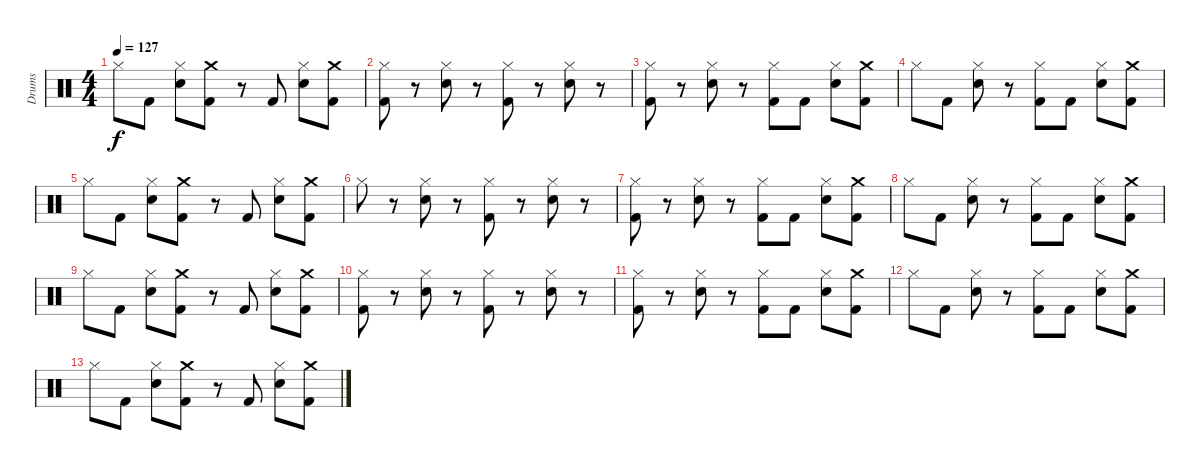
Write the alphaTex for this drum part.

\track ("Drums" "Drums") {instrument percussion}
\staff {score}
\articulation defaults
\ts (4 4)
\tempo 127
\clef neutral
\ks c "Hi-Hat (closed)".8{dy f} "Kick (hit) 2".8
("Hi-Hat (closed)" "Snare (hit) 2").8 ("Crash medium (hit)" "Kick (hit) 2").8 r.8 "Kick (hit) 2".8 ("Hi-Hat (closed)" "Snare (hit) 2").8 ("Crash medium (hit)" "Kick (hit) 2").8 |
("Hi-Hat (closed)" "Kick (hit) 2").8 r.8 ("Hi-Hat (closed)" "Snare (hit) 2").8 r.8 ("Hi-Hat (closed)" "Kick (hit) 2").8 r.8 ("Hi-Hat (closed)" "Snare (hit) 2").8 r.8 |
("Hi-Hat (closed)" "Kick (hit) 2").8 r.8 ("Hi-Hat (closed)" "Snare (hit) 2").8 r.8 ("Hi-Hat (closed)" "Kick (hit) 2").8 "Kick (hit) 2".8 ("Hi-Hat (closed)" "Snare (hit) 2").8 ("Crash medium (hit)" "Kick (hit) 2").8 |
"Hi-Hat (closed)".8 "Kick (hit) 2".8 ("Hi-Hat (closed)" "Snare (hit) 2").8 r.8 ("Hi-Hat (closed)" "Kick (hit) 2").8 "Kick (hit) 2".8 ("Hi-Hat (closed)" "Snare (hit) 2").8 ("Crash medium (hit)" "Kick (hit) 2").8 |
"Hi-Hat (closed)".8 "Kick (hit) 2".8 ("Hi-Hat (closed)" "Snare (hit) 2").8 ("Crash medium (hit)" "Kick (hit) 2").8 r.8 "Kick (hit) 2".8 ("Hi-Hat (closed)" "Snare (hit) 2").8 ("Crash medium (hit)" "Kick (hit) 2").8 |
"Hi-Hat (closed)".8 r.8 ("Hi-Hat (closed)" "Snare (hit) 2").8 r.8 ("Hi-Hat (closed)" "Kick (hit) 2").8 r.8 ("Hi-Hat (closed)" "Snare (hit) 2").8 r.8 |
("Hi-Hat (closed)" "Kick (hit) 2").8 r.8 ("Hi-Hat (closed)" "Snare (hit) 2").8 r.8 ("Hi-Hat (closed)" "Kick (hit) 2").8 "Kick (hit) 2".8 ("Hi-Hat (closed)" "Snare (hit) 2").8 ("Crash medium (hit)" "Kick (hit) 2").8 |
"Hi-Hat (closed)".8 "Kick (hit) 2".8 ("Hi-Hat (closed)" "Snare (hit) 2").8 r.8 ("Hi-Hat (closed)" "Kick (hit) 2").8 "Kick (hit) 2".8 ("Hi-Hat (closed)" "Snare (hit) 2").8 ("Crash medium (hit)" "Kick (hit) 2").8 |
"Hi-Hat (closed)".8 "Kick (hit) 2".8 ("Hi-Hat (closed)" "Snare (hit) 2").8 ("Crash medium (hit)" "Kick (hit) 2").8 r.8 "Kick (hit) 2".8 ("Hi-Hat (closed)" "Snare (hit) 2").8 ("Crash medium (hit)" "Kick (hit) 2").8 |
("Hi-Hat (closed)" "Kick (hit) 2").8 r.8 ("Hi-Hat (closed)" "Snare (hit) 2").8 r.8 ("Hi-Hat (closed)" "Kick (hit) 2").8 r.8 ("Hi-Hat (closed)" "Snare (hit) 2").8 r.8 |
("Hi-Hat (closed)" "Kick (hit) 2").8 r.8 ("Hi-Hat (closed)" "Snare (hit) 2").8 r.8 ("Hi-Hat (closed)" "Kick (hit) 2").8 "Kick (hit) 2".8 ("Hi-Hat (closed)" "Snare (hit) 2").8 ("Crash medium (hit)" "Kick (hit) 2").8 |
"Hi-Hat (closed)".8 "Kick (hit) 2".8 ("Hi-Hat (closed)" "Snare (hit) 2").8 r.8 ("Hi-Hat (closed)" "Kick (hit) 2").8 "Kick (hit) 2".8 ("Hi-Hat (closed)" "Snare (hit) 2").8 ("Crash medium (hit)" "Kick (hit) 2").8 |
"Hi-Hat (closed)".8 "Kick (hit) 2".8 ("Hi-Hat (closed)" "Snare (hit) 2").8 ("Crash medium (hit)" "Kick (hit) 2").8 r.8 "Kick (hit) 2".8 ("Hi-Hat (closed)" "Snare (hit) 2").8 ("Crash medium (hit)" "Kick (hit) 2").8
